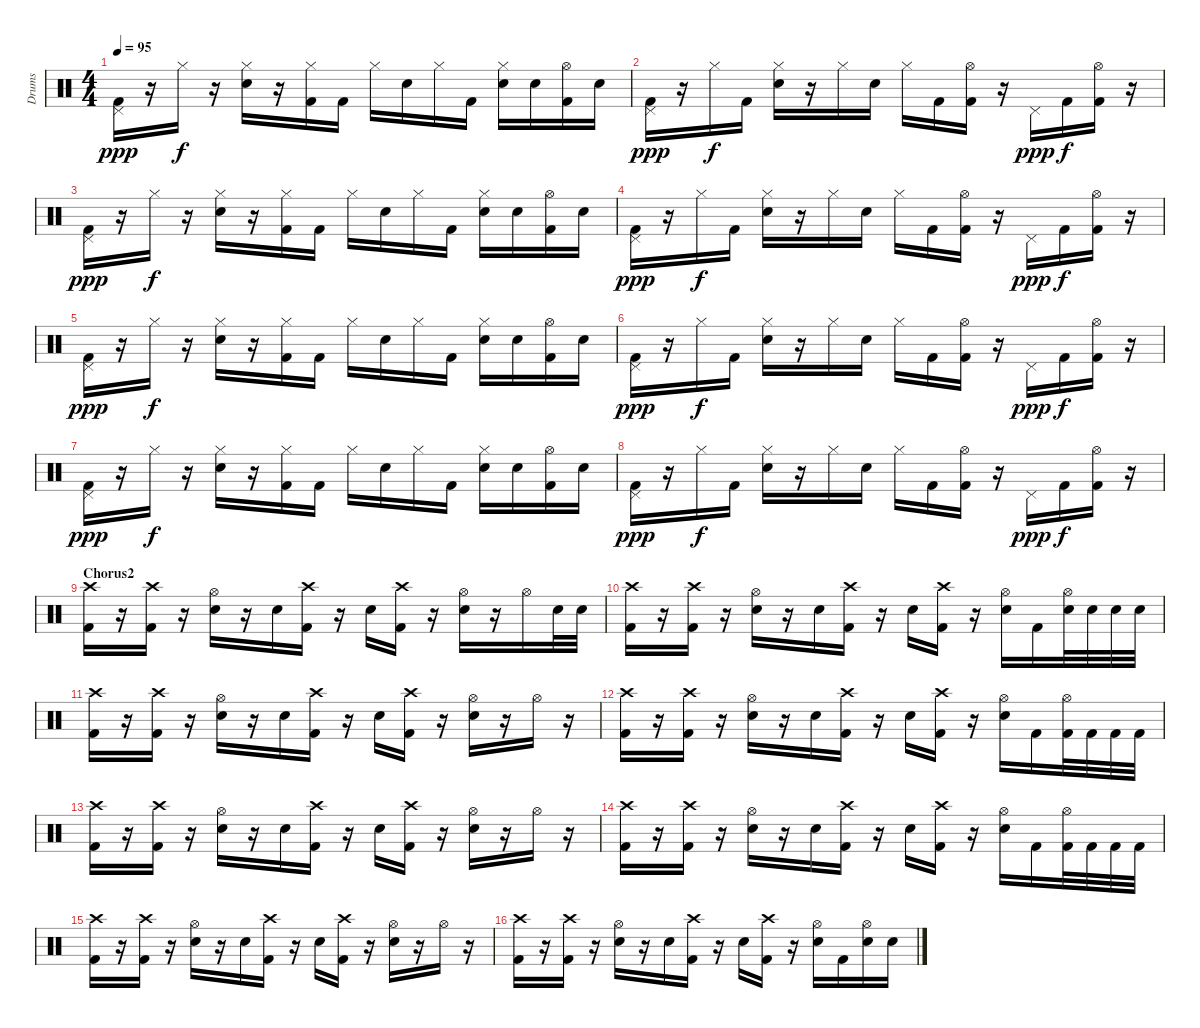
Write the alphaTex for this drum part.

\track ("Drums" "Drums") {instrument percussion}
\staff {score}
\articulation defaults
\ts (4 4)
\tempo 95
\clef neutral
\ks c
("Pedal Hi-Hat (hit)" "Kick (hit) 2").16{dy ppp} r.16 "Hi-Hat (closed)".16{dy f} r.16 ("Hi-Hat (closed)" "Electric Snare (hit)").16 r.16 ("Hi-Hat (closed)" "Kick (hit) 2").16 "Kick (hit) 2".16 "Hi-Hat (closed)".16 "Electric Snare (hit)".16 "Hi-Hat (closed)".16 "Kick (hit) 2".16 ("Hi-Hat (closed)" "Electric Snare (hit)").16 "Electric Snare (hit)".16 ("Hi-Hat (open)" "Kick (hit) 2").16 "Electric Snare (hit)".16 |
("Pedal Hi-Hat (hit)" "Kick (hit) 2").16{dy ppp} r.16 "Hi-Hat (closed)".16{dy f} "Kick (hit) 2".16 ("Hi-Hat (closed)" "Electric Snare (hit)").16 r.16 "Hi-Hat (closed)".16 "Electric Snare (hit)".16 "Hi-Hat (closed)".16 "Kick (hit) 2".16 ("Hi-Hat (open)" "Kick (hit) 2").16 r.16 "Pedal Hi-Hat (hit)".16{dy ppp} "Kick (hit) 2".16{dy f} ("Hi-Hat (open)" "Kick (hit) 2").16 r.16 |
("Pedal Hi-Hat (hit)" "Kick (hit) 2").16{dy ppp} r.16 "Hi-Hat (closed)".16{dy f} r.16 ("Hi-Hat (closed)" "Electric Snare (hit)").16 r.16 ("Hi-Hat (closed)" "Kick (hit) 2").16 "Kick (hit) 2".16 "Hi-Hat (closed)".16 "Electric Snare (hit)".16 "Hi-Hat (closed)".16 "Kick (hit) 2".16 ("Hi-Hat (closed)" "Electric Snare (hit)").16 "Electric Snare (hit)".16 ("Hi-Hat (open)" "Kick (hit) 2").16 "Electric Snare (hit)".16 |
("Pedal Hi-Hat (hit)" "Kick (hit) 2").16{dy ppp} r.16 "Hi-Hat (closed)".16{dy f} "Kick (hit) 2".16 ("Hi-Hat (closed)" "Electric Snare (hit)").16 r.16 "Hi-Hat (closed)".16 "Electric Snare (hit)".16 "Hi-Hat (closed)".16 "Kick (hit) 2".16 ("Hi-Hat (open)" "Kick (hit) 2").16 r.16 "Pedal Hi-Hat (hit)".16{dy ppp} "Kick (hit) 2".16{dy f} ("Hi-Hat (open)" "Kick (hit) 2").16 r.16 |
("Pedal Hi-Hat (hit)" "Kick (hit) 2").16{dy ppp} r.16 "Hi-Hat (closed)".16{dy f} r.16 ("Hi-Hat (closed)" "Electric Snare (hit)").16 r.16 ("Hi-Hat (closed)" "Kick (hit) 2").16 "Kick (hit) 2".16 "Hi-Hat (closed)".16 "Electric Snare (hit)".16 "Hi-Hat (closed)".16 "Kick (hit) 2".16 ("Hi-Hat (closed)" "Electric Snare (hit)").16 "Electric Snare (hit)".16 ("Hi-Hat (open)" "Kick (hit) 2").16 "Electric Snare (hit)".16 |
("Pedal Hi-Hat (hit)" "Kick (hit) 2").16{dy ppp} r.16 "Hi-Hat (closed)".16{dy f} "Kick (hit) 2".16 ("Hi-Hat (closed)" "Electric Snare (hit)").16 r.16 "Hi-Hat (closed)".16 "Electric Snare (hit)".16 "Hi-Hat (closed)".16 "Kick (hit) 2".16 ("Hi-Hat (open)" "Kick (hit) 2").16 r.16 "Pedal Hi-Hat (hit)".16{dy ppp} "Kick (hit) 2".16{dy f} ("Hi-Hat (open)" "Kick (hit) 2").16 r.16 |
("Pedal Hi-Hat (hit)" "Kick (hit) 2").16{dy ppp} r.16 "Hi-Hat (closed)".16{dy f} r.16 ("Hi-Hat (closed)" "Electric Snare (hit)").16 r.16 ("Hi-Hat (closed)" "Kick (hit) 2").16 "Kick (hit) 2".16 "Hi-Hat (closed)".16 "Electric Snare (hit)".16 "Hi-Hat (closed)".16 "Kick (hit) 2".16 ("Hi-Hat (closed)" "Electric Snare (hit)").16 "Electric Snare (hit)".16 ("Hi-Hat (open)" "Kick (hit) 2").16 "Electric Snare (hit)".16 |
("Pedal Hi-Hat (hit)" "Kick (hit) 2").16{dy ppp} r.16 "Hi-Hat (closed)".16{dy f} "Kick (hit) 2".16 ("Hi-Hat (closed)" "Electric Snare (hit)").16 r.16 "Hi-Hat (closed)".16 "Electric Snare (hit)".16 "Hi-Hat (closed)".16 "Kick (hit) 2".16 ("Hi-Hat (open)" "Kick (hit) 2").16 r.16 "Pedal Hi-Hat (hit)".16{dy ppp} "Kick (hit) 2".16{dy f} ("Hi-Hat (open)" "Kick (hit) 2").16 r.16 |
\section ("" "Chorus2")
("Crash high (hit)" "Kick (hit) 2").16 r.16 ("Crash high (hit)" "Kick (hit) 2").16 r.16 ("Hi-Hat (open)" "Electric Snare (hit)").16 r.16 "Electric Snare (hit)".16 ("Crash high (hit)" "Kick (hit) 2").16 r.16 "Electric Snare (hit)".16 ("Crash high (hit)" "Kick (hit) 2").16 r.16 ("Hi-Hat (open)" "Electric Snare (hit)").16 r.16 "Hi-Hat (open)".16 "Electric Snare (hit)".32 "Electric Snare (hit)".32 |
("Crash high (hit)" "Kick (hit) 2").16 r.16 ("Crash high (hit)" "Kick (hit) 2").16 r.16 ("Hi-Hat (open)" "Electric Snare (hit)").16 r.16 "Electric Snare (hit)".16 ("Crash high (hit)" "Kick (hit) 2").16 r.16 "Electric Snare (hit)".16 ("Crash high (hit)" "Kick (hit) 2").16 r.16 ("Hi-Hat (open)" "Electric Snare (hit)").16 "Kick (hit) 2".16 ("Hi-Hat (open)" "Electric Snare (hit)").32 "Electric Snare (hit)".32 "Electric Snare (hit)".32 "Electric Snare (hit)".32 |
("Crash high (hit)" "Kick (hit) 2").16 r.16 ("Crash high (hit)" "Kick (hit) 2").16 r.16 ("Hi-Hat (open)" "Electric Snare (hit)").16 r.16 "Electric Snare (hit)".16 ("Crash high (hit)" "Kick (hit) 2").16 r.16 "Electric Snare (hit)".16 ("Crash high (hit)" "Kick (hit) 2").16 r.16 ("Hi-Hat (open)" "Electric Snare (hit)").16 r.16 "Hi-Hat (open)".16 r.16 |
("Crash high (hit)" "Kick (hit) 2").16 r.16 ("Crash high (hit)" "Kick (hit) 2").16 r.16 ("Hi-Hat (open)" "Electric Snare (hit)").16 r.16 "Electric Snare (hit)".16 ("Crash high (hit)" "Kick (hit) 2").16 r.16 "Electric Snare (hit)".16 ("Crash high (hit)" "Kick (hit) 2").16 r.16 ("Hi-Hat (open)" "Electric Snare (hit)").16 "Kick (hit) 2".16 ("Hi-Hat (open)" "Kick (hit) 2").32 "Kick (hit) 2".32 "Kick (hit) 2".32 "Kick (hit) 2".32 |
("Crash high (hit)" "Kick (hit) 2").16 r.16 ("Crash high (hit)" "Kick (hit) 2").16 r.16 ("Hi-Hat (open)" "Electric Snare (hit)").16 r.16 "Electric Snare (hit)".16 ("Crash high (hit)" "Kick (hit) 2").16 r.16 "Electric Snare (hit)".16 ("Crash high (hit)" "Kick (hit) 2").16 r.16 ("Hi-Hat (open)" "Electric Snare (hit)").16 r.16 "Hi-Hat (open)".16 r.16 |
("Crash high (hit)" "Kick (hit) 2").16 r.16 ("Crash high (hit)" "Kick (hit) 2").16 r.16 ("Hi-Hat (open)" "Electric Snare (hit)").16 r.16 "Electric Snare (hit)".16 ("Crash high (hit)" "Kick (hit) 2").16 r.16 "Electric Snare (hit)".16 ("Crash high (hit)" "Kick (hit) 2").16 r.16 ("Hi-Hat (open)" "Electric Snare (hit)").16 "Kick (hit) 2".16 ("Hi-Hat (open)" "Kick (hit) 2").32 "Kick (hit) 2".32 "Kick (hit) 2".32 "Kick (hit) 2".32 |
("Crash high (hit)" "Kick (hit) 2").16 r.16 ("Crash high (hit)" "Kick (hit) 2").16 r.16 ("Hi-Hat (open)" "Electric Snare (hit)").16 r.16 "Electric Snare (hit)".16 ("Crash high (hit)" "Kick (hit) 2").16 r.16 "Electric Snare (hit)".16 ("Crash high (hit)" "Kick (hit) 2").16 r.16 ("Hi-Hat (open)" "Electric Snare (hit)").16 r.16 "Hi-Hat (open)".16 r.16 |
("Crash high (hit)" "Kick (hit) 2").16 r.16 ("Crash high (hit)" "Kick (hit) 2").16 r.16 ("Hi-Hat (open)" "Electric Snare (hit)").16 r.16 "Electric Snare (hit)".16 ("Crash high (hit)" "Kick (hit) 2").16 r.16 "Electric Snare (hit)".16 ("Crash high (hit)" "Kick (hit) 2").16 r.16 ("Hi-Hat (open)" "Electric Snare (hit)").16 "Kick (hit) 2".16 ("Hi-Hat (open)" "Electric Snare (hit)").16 "Electric Snare (hit)".16
